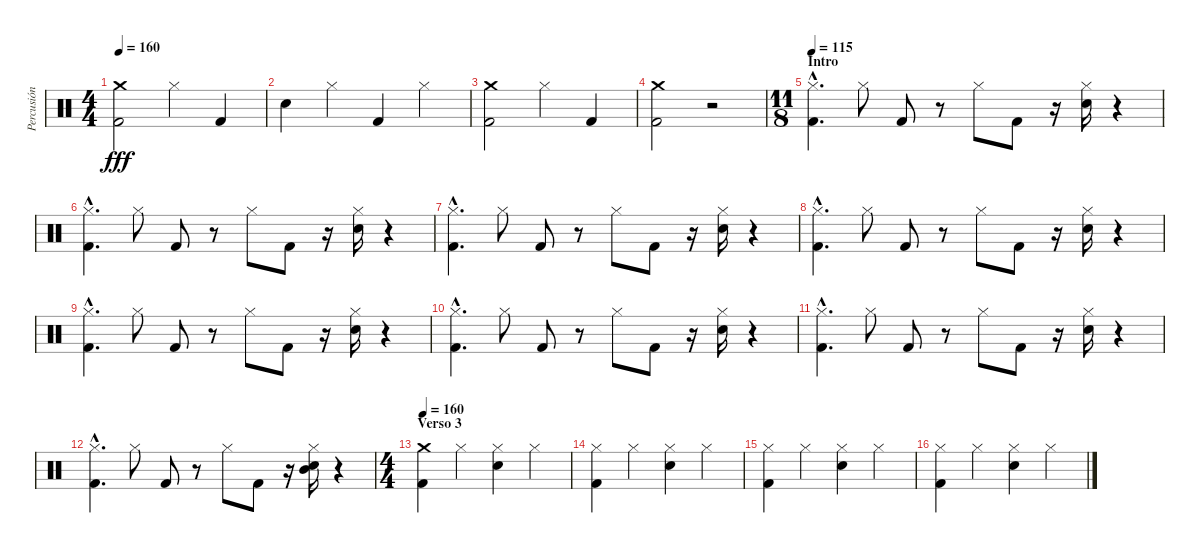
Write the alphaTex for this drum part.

\track ("Percusión" "Percusión") {instrument percussion}
\staff {score}
\articulation defaults
\ts (4 4)
\tempo 160
\clef neutral
\ks c
("Crash medium (hit)" "Kick (hit) 2").2{dy fff} "Hi-Hat (closed)".4 "Kick (hit) 2".4 |
"Snare (hit) 2".4 "Hi-Hat (closed)".4 "Kick (hit) 2".4 "Hi-Hat (closed)".4 |
("Crash medium (hit)" "Kick (hit) 2").2 "Hi-Hat (closed)".4 "Kick (hit) 2".4 |
("Crash medium (hit)" "Kick (hit) 2").2 r.2 |
\ts (11 8)
\section ("" "Intro")
\tempo 115
("Hi-Hat (closed)"{hac} "Kick (hit) 2"{hac}).4{d} "Hi-Hat (closed)".8 "Kick (hit) 2".8 r.8 "Hi-Hat (closed)".8 "Kick (hit) 2".8 r.16 ("Hi-Hat (closed)" "Snare (hit) 2").16 r.4 |
("Hi-Hat (closed)"{hac} "Kick (hit) 2"{hac}).4{d} "Hi-Hat (closed)".8 "Kick (hit) 2".8 r.8 "Hi-Hat (closed)".8 "Kick (hit) 2".8 r.16 ("Hi-Hat (closed)" "Snare (hit) 2").16 r.4 |
("Hi-Hat (closed)"{hac} "Kick (hit) 2"{hac}).4{d} "Hi-Hat (closed)".8 "Kick (hit) 2".8 r.8 "Hi-Hat (closed)".8 "Kick (hit) 2".8 r.16 ("Hi-Hat (closed)" "Snare (hit) 2").16 r.4 |
("Hi-Hat (closed)"{hac} "Kick (hit) 2"{hac}).4{d} "Hi-Hat (closed)".8 "Kick (hit) 2".8 r.8 "Hi-Hat (closed)".8 "Kick (hit) 2".8 r.16 ("Hi-Hat (closed)" "Snare (hit) 2").16 r.4 |
("Hi-Hat (closed)"{hac} "Kick (hit) 2"{hac}).4{d} "Hi-Hat (closed)".8 "Kick (hit) 2".8 r.8 "Hi-Hat (closed)".8 "Kick (hit) 2".8 r.16 ("Hi-Hat (closed)" "Snare (hit) 2").16 r.4 |
("Hi-Hat (closed)"{hac} "Kick (hit) 2"{hac}).4{d} "Hi-Hat (closed)".8 "Kick (hit) 2".8 r.8 "Hi-Hat (closed)".8 "Kick (hit) 2".8 r.16 ("Hi-Hat (closed)" "Snare (hit) 2").16 r.4 |
("Hi-Hat (closed)"{hac} "Kick (hit) 2"{hac}).4{d} "Hi-Hat (closed)".8 "Kick (hit) 2".8 r.8 "Hi-Hat (closed)".8 "Kick (hit) 2".8 r.16 ("Hi-Hat (closed)" "Snare (hit) 2").16 r.4 |
("Hi-Hat (closed)"{hac} "Kick (hit) 2"{hac}).4{d} "Hi-Hat (closed)".8 "Kick (hit) 2".8 r.8 "Hi-Hat (closed)".8 "Kick (hit) 2".8 r.16 ("Hi-Hat (closed)" "Mid Tom (hit)" "Snare (hit) 2").16 r.4 |
\ts (4 4)
\section ("" "Verso 3")
\tempo 160
("Crash medium (hit)" "Kick (hit) 2").4 "Hi-Hat (closed)".4 ("Hi-Hat (closed)" "Snare (hit) 2").4 "Hi-Hat (closed)".4 |
("Hi-Hat (closed)" "Kick (hit) 2").4 "Hi-Hat (closed)".4 ("Hi-Hat (closed)" "Snare (hit) 2").4 "Hi-Hat (closed)".4 |
("Hi-Hat (closed)" "Kick (hit) 2").4 "Hi-Hat (closed)".4 ("Hi-Hat (closed)" "Snare (hit) 2").4 "Hi-Hat (closed)".4 |
("Hi-Hat (closed)" "Kick (hit) 2").4 "Hi-Hat (closed)".4 ("Hi-Hat (closed)" "Snare (hit) 2").4 "Hi-Hat (closed)".4
